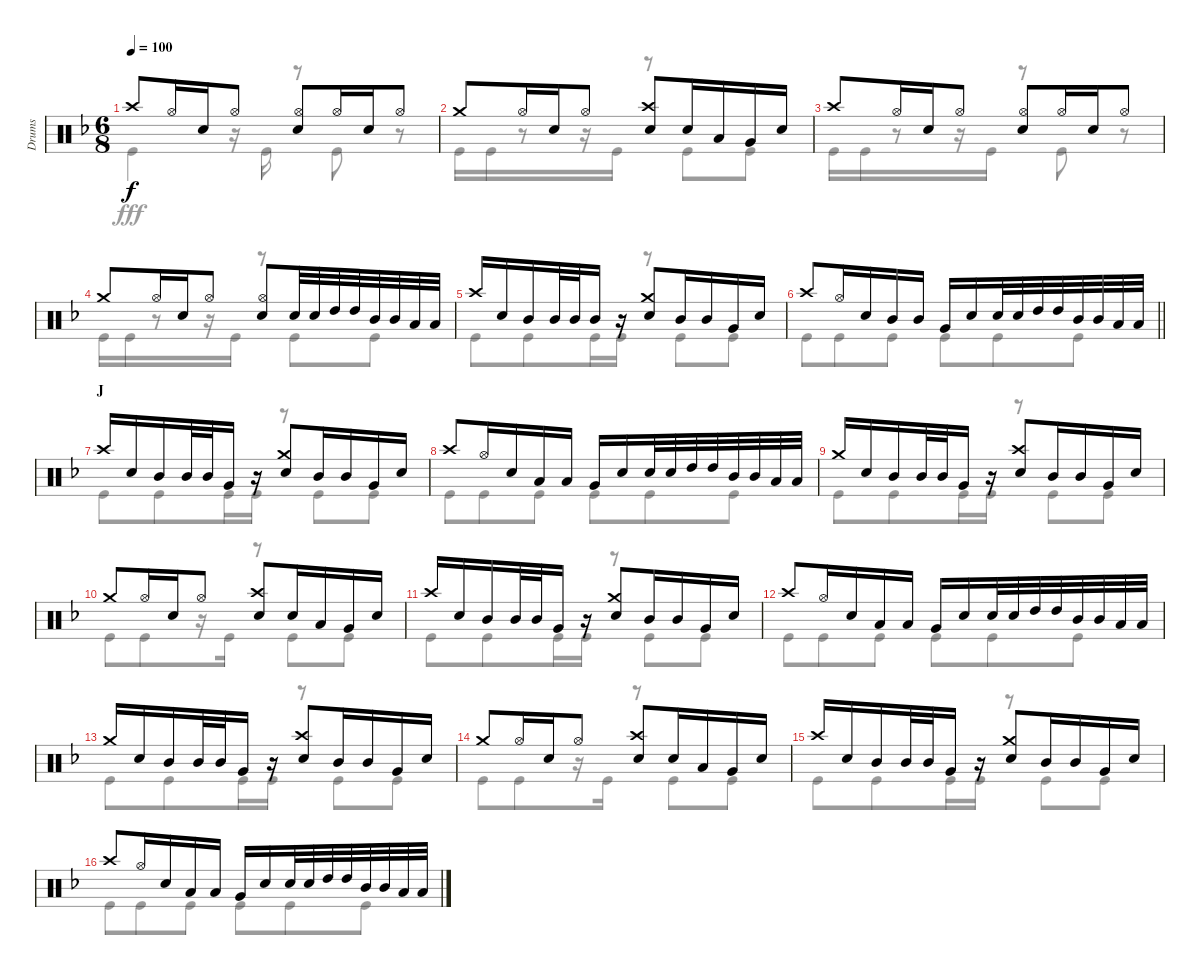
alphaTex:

\track ("Drums" "Drums") {instrument percussion}
\staff {score}
\articulation defaults
\voice
\ts (6 8)
\tempo 100
\clef neutral
\ks f "Crash high (hit)".8{dy f} "Hi-Hat (open)".16 "Snare (hit) 2".16 "Hi-Hat (open)".8
("Hi-Hat (open)" "Snare (hit) 2").8 "Hi-Hat (open)".16 "Snare (hit) 2".16 "Hi-Hat (open)".8 |
"Crash medium (hit)".8 "Hi-Hat (open)".16 "Snare (hit) 2".16 "Hi-Hat (open)".8 ("Crash high (hit)" "Snare (hit) 2").8 "Snare (hit) 2".16 "Low Tom (hit)".16 "Very Low Tom (hit)".16 "Snare (hit) 2".16 |
"Crash high (hit)".8 "Hi-Hat (open)".16 "Snare (hit) 2".16 "Hi-Hat (open)".8 ("Hi-Hat (open)" "Snare (hit) 2").8 "Hi-Hat (open)".16 "Snare (hit) 2".16 "Hi-Hat (open)".8 |
"Crash medium (hit)".8 "Hi-Hat (open)".16 "Snare (hit) 2".16 "Hi-Hat (open)".8 ("Hi-Hat (open)" "Snare (hit) 2").8 "Snare (hit) 2".32 "Snare (hit) 2".32 "High Tom (hit)".32 "High Tom (hit)".32 "Mid Tom (hit)".32 "Mid Tom (hit)".32 "Low Tom (hit)".32 "Low Tom (hit)".32 |
"Crash high (hit)".16 "Snare (hit) 2".16 "Mid Tom (hit)".16 "Mid Tom (hit)".32 "Mid Tom (hit)".32 "Mid Tom (hit)".16 r.16 ("Crash medium (hit)" "Snare (hit) 2").8 "Mid Tom (hit)".16 "Mid Tom (hit)".16 "Very Low Tom (hit)".16 "Snare (hit) 2".16 |
\barLineRight lightlight "Crash high (hit)".8 "Hi-Hat (open)".16 "Snare (hit) 2".16 "Mid Tom (hit)".16 "Mid Tom (hit)".16 "Very Low Tom (hit)".16 "Snare (hit) 2".16 "Snare (hit) 2".32 "Snare (hit) 2".32 "High Tom (hit)".32 "High Tom (hit)".32 "Mid Tom (hit)".32 "Mid Tom (hit)".32 "Low Tom (hit)".32 "Low Tom (hit)".32
|
\section ("" "J")
"Crash high (hit)".16 "Snare (hit) 2".16 "Mid Tom (hit)".16 "Mid Tom (hit)".32 "Mid Tom (hit)".32 "Very Low Tom (hit)".16 r.16 ("Crash medium (hit)" "Snare (hit) 2").8 "Mid Tom (hit)".16 "Mid Tom (hit)".16 "Very Low Tom (hit)".16 "Snare (hit) 2".16 |
"Crash high (hit)".8 "Hi-Hat (open)".16 "Snare (hit) 2".16 "Low Tom (hit)".16 "Low Tom (hit)".16 "Very Low Tom (hit)".16 "Snare (hit) 2".16 "Snare (hit) 2".32 "Snare (hit) 2".32 "High Tom (hit)".32 "High Tom (hit)".32 "Mid Tom (hit)".32 "Mid Tom (hit)".32 "Low Tom (hit)".32 "Low Tom (hit)".32 |
"Crash medium (hit)".16 "Snare (hit) 2".16 "Mid Tom (hit)".16 "Mid Tom (hit)".32 "Mid Tom (hit)".32 "Very Low Tom (hit)".16 r.16 ("Crash high (hit)" "Snare (hit) 2").8 "Mid Tom (hit)".16 "Mid Tom (hit)".16 "Very Low Tom (hit)".16 "Snare (hit) 2".16 |
"Crash medium (hit)".8 "Hi-Hat (open)".16 "Snare (hit) 2".16 "Hi-Hat (open)".8 ("Crash high (hit)" "Snare (hit) 2").8 "Snare (hit) 2".16 "Low Tom (hit)".16 "Very Low Tom (hit)".16 "Snare (hit) 2".16 |
"Crash high (hit)".16 "Snare (hit) 2".16 "Mid Tom (hit)".16 "Mid Tom (hit)".32 "Mid Tom (hit)".32 "Very Low Tom (hit)".16 r.16 ("Crash medium (hit)" "Snare (hit) 2").8 "Mid Tom (hit)".16 "Mid Tom (hit)".16 "Very Low Tom (hit)".16 "Snare (hit) 2".16 |
"Crash high (hit)".8 "Hi-Hat (open)".16 "Snare (hit) 2".16 "Low Tom (hit)".16 "Low Tom (hit)".16 "Very Low Tom (hit)".16 "Snare (hit) 2".16 "Snare (hit) 2".32 "Snare (hit) 2".32 "High Tom (hit)".32 "High Tom (hit)".32 "Mid Tom (hit)".32 "Mid Tom (hit)".32 "Low Tom (hit)".32 "Low Tom (hit)".32 |
"Crash medium (hit)".16 "Snare (hit) 2".16 "Mid Tom (hit)".16 "Mid Tom (hit)".32 "Mid Tom (hit)".32 "Very Low Tom (hit)".16 r.16 ("Crash high (hit)" "Snare (hit) 2").8 "Mid Tom (hit)".16 "Mid Tom (hit)".16 "Very Low Tom (hit)".16 "Snare (hit) 2".16 |
"Crash medium (hit)".8 "Hi-Hat (open)".16 "Snare (hit) 2".16 "Hi-Hat (open)".8 ("Crash high (hit)" "Snare (hit) 2").8 "Snare (hit) 2".16 "Low Tom (hit)".16 "Very Low Tom (hit)".16 "Snare (hit) 2".16 |
"Crash high (hit)".16 "Snare (hit) 2".16 "Mid Tom (hit)".16 "Mid Tom (hit)".32 "Mid Tom (hit)".32 "Very Low Tom (hit)".16 r.16 ("Crash medium (hit)" "Snare (hit) 2").8 "Mid Tom (hit)".16 "Mid Tom (hit)".16 "Very Low Tom (hit)".16 "Snare (hit) 2".16 |
"Crash high (hit)".8 "Hi-Hat (open)".16 "Snare (hit) 2".16 "Low Tom (hit)".16 "Low Tom (hit)".16 "Very Low Tom (hit)".16 "Snare (hit) 2".16 "Snare (hit) 2".32 "Snare (hit) 2".32 "High Tom (hit)".32 "High Tom (hit)".32 "Mid Tom (hit)".32 "Mid Tom (hit)".32 "Low Tom (hit)".32 "Low Tom (hit)".32
\voice
\clef neutral
\ottava regular
\simile none
\ks f "Kick (hit)".4{dy fff}
r.16 "Kick (hit)".16 r.8 "Kick (hit)".8 r.8 |
"Kick (hit)".16 "Kick (hit)".16 r.8 r.16 "Kick (hit)".16 r.8 "Kick (hit)".8 "Kick (hit)".8 |
"Kick (hit)".16 "Kick (hit)".16 r.8 r.16 "Kick (hit)".16 r.8 "Kick (hit)".8 r.8 |
"Kick (hit)".16 "Kick (hit)".16 r.8 r.16 "Kick (hit)".16 r.8 "Kick (hit)".8 "Kick (hit)".8 |
"Kick (hit)".8 "Kick (hit)".8 "Kick (hit)".16 "Kick (hit)".16 r.8 "Kick (hit)".8 "Kick (hit)".8 |
\barLineRight lightlight "Kick (hit)".8 "Kick (hit)".8 "Kick (hit)".8 "Kick (hit)".8 "Kick (hit)".8 "Kick (hit)".8
|
"Kick (hit)".8 "Kick (hit)".8 "Kick (hit)".16 "Kick (hit)".16 r.8 "Kick (hit)".8 "Kick (hit)".8 |
"Kick (hit)".8 "Kick (hit)".8 "Kick (hit)".8 "Kick (hit)".8 "Kick (hit)".8 "Kick (hit)".8 |
"Kick (hit)".8 "Kick (hit)".8 "Kick (hit)".16 "Kick (hit)".16 r.8 "Kick (hit)".8 "Kick (hit)".8 |
"Kick (hit)".8 "Kick (hit)".8 r.16 "Kick (hit)".16 r.8 "Kick (hit)".8 "Kick (hit)".8 |
"Kick (hit)".8 "Kick (hit)".8 "Kick (hit)".16 "Kick (hit)".16 r.8 "Kick (hit)".8 "Kick (hit)".8 |
"Kick (hit)".8 "Kick (hit)".8 "Kick (hit)".8 "Kick (hit)".8 "Kick (hit)".8 "Kick (hit)".8 |
"Kick (hit)".8 "Kick (hit)".8 "Kick (hit)".16 "Kick (hit)".16 r.8 "Kick (hit)".8 "Kick (hit)".8 |
"Kick (hit)".8 "Kick (hit)".8 r.16 "Kick (hit)".16 r.8 "Kick (hit)".8 "Kick (hit)".8 |
"Kick (hit)".8 "Kick (hit)".8 "Kick (hit)".16 "Kick (hit)".16 r.8 "Kick (hit)".8 "Kick (hit)".8 |
"Kick (hit)".8 "Kick (hit)".8 "Kick (hit)".8 "Kick (hit)".8 "Kick (hit)".8 "Kick (hit)".8
